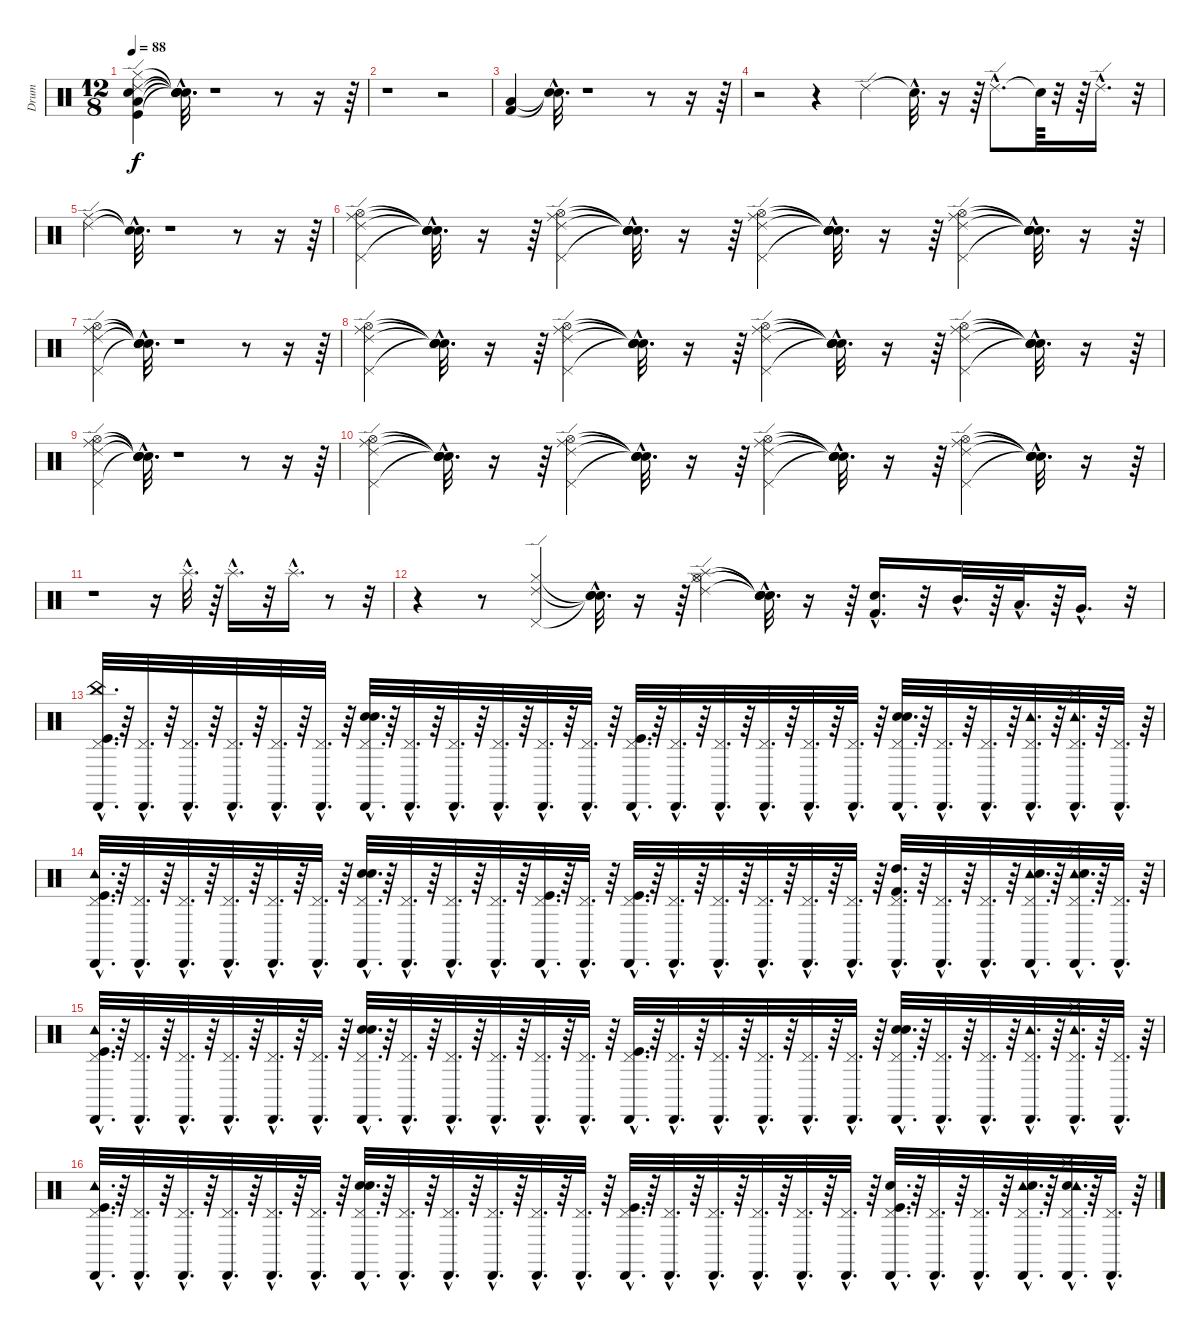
\track ("Drum" "Drum") {instrument percussion}
\staff {score}
\articulation defaults
\ts (12 8)
\tempo 88
\clef neutral
\ks c
("Ride (edge) 2" "Hi-Hat (closed)" "Low Tom (hit)" "Kick (hit)" "Snare (hit) 2").4{dy f} ("Snare (hit)"{hac t} "Snare (hit)"{hac t} "Snare (hit)"{hac t} "Snare (hit)"{hac t} "Snare (hit)"{hac t}).32{d} r.1 r.8 r.16 r.64 |
r.1 r.2 |
("Kick (hit) 2" "Low Tom (hit)").4 ("Snare (hit)"{hac t} "Snare (hit)"{hac t}).32{d} r.1 r.8 r.16 r.64 |
r.2 r.4 "Ride (edge) 2".4 "Snare (hit)"{hac t}.32{d} r.16 r.64 "Ride (edge) 2"{hac}.8{d} "Snare (hit)"{t}.64 r.32 r.64 "Ride (edge) 2"{hac}.16{d} r.32 |
("Ride (middle)" "Ride (edge) 2").4 ("Snare (hit)"{hac t} "Snare (hit)"{hac t}).32{d} r.1 r.8 r.16 r.64 |
("Pedal Hi-Hat (hit)" "Ride (edge) 2" "Ride (middle)" "Hi-Hat (open)").4 ("Snare (hit)"{hac t} "Snare (hit)"{hac t} "Snare (hit)"{hac t} "Snare (hit)"{hac t}).32{d} r.16 r.64 ("Pedal Hi-Hat (hit)" "Ride (edge) 2" "Ride (middle)" "Hi-Hat (open)").4 ("Snare (hit)"{hac t} "Snare (hit)"{hac t} "Snare (hit)"{hac t} "Snare (hit)"{hac t}).32{d} r.16 r.64 ("Pedal Hi-Hat (hit)" "Ride (edge) 2" "Ride (middle)" "Hi-Hat (open)").4 ("Snare (hit)"{hac t} "Snare (hit)"{hac t} "Snare (hit)"{hac t} "Snare (hit)"{hac t}).32{d} r.16 r.64 ("Pedal Hi-Hat (hit)" "Ride (edge) 2" "Ride (middle)" "Hi-Hat (open)").4 ("Snare (hit)"{hac t} "Snare (hit)"{hac t} "Snare (hit)"{hac t} "Snare (hit)"{hac t}).32{d} r.16 r.64 |
("Pedal Hi-Hat (hit)" "Ride (middle)" "Ride (edge) 2" "Hi-Hat (open)").4 ("Snare (hit)"{hac t} "Snare (hit)"{hac t} "Snare (hit)"{hac t} "Snare (hit)"{hac t}).32{d} r.1 r.8 r.16 r.64 |
("Hi-Hat (open)" "Ride (middle)" "Ride (edge) 2" "Pedal Hi-Hat (hit)").4 ("Snare (hit)"{hac t} "Snare (hit)"{hac t} "Snare (hit)"{hac t} "Snare (hit)"{hac t}).32{d} r.16 r.64 ("Hi-Hat (open)" "Ride (middle)" "Ride (edge) 2" "Pedal Hi-Hat (hit)").4 ("Snare (hit)"{hac t} "Snare (hit)"{hac t} "Snare (hit)"{hac t} "Snare (hit)"{hac t}).32{d} r.16 r.64 ("Hi-Hat (open)" "Ride (middle)" "Ride (edge) 2" "Pedal Hi-Hat (hit)").4 ("Snare (hit)"{hac t} "Snare (hit)"{hac t} "Snare (hit)"{hac t} "Snare (hit)"{hac t}).32{d} r.16 r.64 ("Hi-Hat (open)" "Ride (middle)" "Ride (edge) 2" "Pedal Hi-Hat (hit)").4 ("Snare (hit)"{hac t} "Snare (hit)"{hac t} "Snare (hit)"{hac t} "Snare (hit)"{hac t}).32{d} r.16 r.64 |
("Hi-Hat (open)" "Ride (edge) 2" "Ride (middle)" "Pedal Hi-Hat (hit)").4 ("Snare (hit)"{hac t} "Snare (hit)"{hac t} "Snare (hit)"{hac t} "Snare (hit)"{hac t}).32{d} r.1 r.8 r.16 r.64 |
("Pedal Hi-Hat (hit)" "Ride (edge) 2" "Ride (middle)" "Hi-Hat (open)").4 ("Snare (hit)"{hac t} "Snare (hit)"{hac t} "Snare (hit)"{hac t} "Snare (hit)"{hac t}).32{d} r.16 r.64 ("Pedal Hi-Hat (hit)" "Ride (edge) 2" "Ride (middle)" "Hi-Hat (open)").4 ("Snare (hit)"{hac t} "Snare (hit)"{hac t} "Snare (hit)"{hac t} "Snare (hit)"{hac t}).32{d} r.16 r.64 ("Pedal Hi-Hat (hit)" "Ride (edge) 2" "Ride (middle)" "Hi-Hat (open)").4 ("Snare (hit)"{hac t} "Snare (hit)"{hac t} "Snare (hit)"{hac t} "Snare (hit)"{hac t}).32{d} r.16 r.64 ("Pedal Hi-Hat (hit)" "Ride (edge) 2" "Ride (middle)" "Hi-Hat (open)").4 ("Snare (hit)"{hac t} "Snare (hit)"{hac t} "Snare (hit)"{hac t} "Snare (hit)"{hac t}).32{d} r.16 r.64 |
r.1 r.16 "Splash (hit)"{hac}.32{d} r.64 "Splash (hit)"{hac}.16{d} r.32 "Splash (hit)"{hac}.16{d} r.8 r.32 |
r.4 r.8 ("Ride (edge) 2" "Hi-Hat (closed)" "Pedal Hi-Hat (hit)").4 ("Snare (hit)"{hac t} "Snare (hit)"{hac t} "Snare (hit)"{hac t}).32{d} r.16 r.64 ("Ride (edge) 2" "Hi-Hat (open)" "Splash (hit)" "Hi-Hat (closed)").4 ("Snare (hit)"{hac t} "Snare (hit)"{hac t} "Snare (hit)"{hac t} "Snare (hit)"{hac t}).32{d} r.16 r.64 ("Kick (hit) 2"{hac} "Snare (hit) 2"{hac}).16{d} r.32 "Mid Tom (hit)"{hac}.32{d} r.64 "Low Tom (hit)"{hac}.32{d} r.64 "Very Low Tom (hit)"{hac}.16{d} r.32 |
("Pedal Hi-Hat (hit)"{hac} "Kick (hit)"{hac} "Cabasa (hit)"{hac} "China (hit)"{hac}).32{d} r.64 ("Cabasa (hit)"{hac} "Pedal Hi-Hat (hit)"{hac}).32{d} r.64 ("Cabasa (hit)"{hac} "Pedal Hi-Hat (hit)"{hac}).32{d} r.64 ("Cabasa (hit)"{hac} "Pedal Hi-Hat (hit)"{hac}).32{d} r.64 ("Cabasa (hit)"{hac} "Pedal Hi-Hat (hit)"{hac}).32{d} r.64 ("Pedal Hi-Hat (hit)"{hac} "Cabasa (hit)"{hac}).32{d} r.64 ("Electric Snare (hit)"{hac} "Snare (hit) 2"{hac} "Cabasa (hit)"{hac} "Pedal Hi-Hat (hit)"{hac}).32{d} r.64 ("Cabasa (hit)"{hac} "Pedal Hi-Hat (hit)"{hac}).32{d} r.64 ("Cabasa (hit)"{hac} "Pedal Hi-Hat (hit)"{hac}).32{d} r.64 ("Pedal Hi-Hat (hit)"{hac} "Cabasa (hit)"{hac}).32{d} r.64 ("Pedal Hi-Hat (hit)"{hac} "Cabasa (hit)"{hac}).32{d} r.64 ("Cabasa (hit)"{hac} "Pedal Hi-Hat (hit)"{hac}).32{d} r.64 ("Cabasa (hit)"{hac} "Kick (hit)"{hac} "Pedal Hi-Hat (hit)"{hac}).32{d} r.64 ("Cabasa (hit)"{hac} "Pedal Hi-Hat (hit)"{hac}).32{d} r.64 ("Cabasa (hit)"{hac} "Pedal Hi-Hat (hit)"{hac}).32{d} r.64 ("Pedal Hi-Hat (hit)"{hac} "Cabasa (hit)"{hac}).32{d} r.64 ("Pedal Hi-Hat (hit)"{hac} "Cabasa (hit)"{hac}).32{d} r.64 ("Pedal Hi-Hat (hit)"{hac} "Cabasa (hit)"{hac}).32{d} r.64 ("Snare (hit) 2"{hac} "Pedal Hi-Hat (hit)"{hac} "Electric Snare (hit)"{hac} "Cabasa (hit)"{hac}).32{d} r.64 ("Pedal Hi-Hat (hit)"{hac} "Cabasa (hit)"{hac}).32{d} r.64 ("Pedal Hi-Hat (hit)"{hac} "Cabasa (hit)"{hac}).32{d} r.64 ("Tambourine (hit)"{hac} "Pedal Hi-Hat (hit)"{hac} "Cabasa (hit)"{hac}).32{d} r.64 ("Pedal Hi-Hat (hit)"{hac} "Cabasa (hit)"{hac} "Splash (hit)"{hac} "Tambourine (hit)"{hac}).32{d} r.64 ("Pedal Hi-Hat (hit)"{hac} "Cabasa (hit)"{hac}).32{d} r.64 |
("Cabasa (hit)"{hac} "Kick (hit)"{hac} "Pedal Hi-Hat (hit)"{hac} "Tambourine (hit)"{hac}).32{d} r.64 ("Cabasa (hit)"{hac} "Pedal Hi-Hat (hit)"{hac}).32{d} r.64 ("Pedal Hi-Hat (hit)"{hac} "Cabasa (hit)"{hac}).32{d} r.64 ("Pedal Hi-Hat (hit)"{hac} "Cabasa (hit)"{hac}).32{d} r.64 ("Cabasa (hit)"{hac} "Pedal Hi-Hat (hit)"{hac}).32{d} r.64 ("Pedal Hi-Hat (hit)"{hac} "Cabasa (hit)"{hac}).32{d} r.64 ("Pedal Hi-Hat (hit)"{hac} "Snare (hit) 2"{hac} "Cabasa (hit)"{hac} "Electric Snare (hit)"{hac}).32{d} r.64 ("Cabasa (hit)"{hac} "Pedal Hi-Hat (hit)"{hac}).32{d} r.64 ("Cabasa (hit)"{hac} "Pedal Hi-Hat (hit)"{hac}).32{d} r.64 ("Pedal Hi-Hat (hit)"{hac} "Cabasa (hit)"{hac}).32{d} r.64 ("Cabasa (hit)"{hac} "Pedal Hi-Hat (hit)"{hac} "Kick (hit)"{hac}).32{d} r.64 ("Cabasa (hit)"{hac} "Pedal Hi-Hat (hit)"{hac}).32{d} r.64 ("Cabasa (hit)"{hac} "Kick (hit)"{hac} "Pedal Hi-Hat (hit)"{hac}).32{d} r.64 ("Cabasa (hit)"{hac} "Pedal Hi-Hat (hit)"{hac}).32{d} r.64 ("Pedal Hi-Hat (hit)"{hac} "Cabasa (hit)"{hac}).32{d} r.64 ("Pedal Hi-Hat (hit)"{hac} "Cabasa (hit)"{hac}).32{d} r.64 ("Cabasa (hit)"{hac} "Pedal Hi-Hat (hit)"{hac}).32{d} r.64 ("Pedal Hi-Hat (hit)"{hac} "Cabasa (hit)"{hac}).32{d} r.64 ("High Tom (hit)"{hac} "Pedal Hi-Hat (hit)"{hac} "Kick (hit) 2"{hac} "Cabasa (hit)"{hac}).32{d} r.64 ("Pedal Hi-Hat (hit)"{hac} "Cabasa (hit)"{hac}).32{d} r.64 ("Pedal Hi-Hat (hit)"{hac} "Cabasa (hit)"{hac}).32{d} r.64 ("Tambourine (hit)"{hac} "Snare (hit) 2"{hac} "Pedal Hi-Hat (hit)"{hac} "Cabasa (hit)"{hac}).32{d} r.64 ("Splash (hit)"{hac} "Tambourine (hit)"{hac} "Pedal Hi-Hat (hit)"{hac} "Snare (hit) 2"{hac} "Cabasa (hit)"{hac}).32{d} r.64 ("Pedal Hi-Hat (hit)"{hac} "Cabasa (hit)"{hac}).32{d} r.64 |
("Kick (hit)"{hac} "Pedal Hi-Hat (hit)"{hac} "Cabasa (hit)"{hac} "Tambourine (hit)"{hac}).32{d} r.64 ("Pedal Hi-Hat (hit)"{hac} "Cabasa (hit)"{hac}).32{d} r.64 ("Pedal Hi-Hat (hit)"{hac} "Cabasa (hit)"{hac}).32{d} r.64 ("Pedal Hi-Hat (hit)"{hac} "Cabasa (hit)"{hac}).32{d} r.64 ("Pedal Hi-Hat (hit)"{hac} "Cabasa (hit)"{hac}).32{d} r.64 ("Cabasa (hit)"{hac} "Pedal Hi-Hat (hit)"{hac}).32{d} r.64 ("Cabasa (hit)"{hac} "Electric Snare (hit)"{hac} "Pedal Hi-Hat (hit)"{hac} "Snare (hit) 2"{hac}).32{d} r.64 ("Pedal Hi-Hat (hit)"{hac} "Cabasa (hit)"{hac}).32{d} r.64 ("Pedal Hi-Hat (hit)"{hac} "Cabasa (hit)"{hac}).32{d} r.64 ("Cabasa (hit)"{hac} "Pedal Hi-Hat (hit)"{hac}).32{d} r.64 ("Cabasa (hit)"{hac} "Pedal Hi-Hat (hit)"{hac}).32{d} r.64 ("Pedal Hi-Hat (hit)"{hac} "Cabasa (hit)"{hac}).32{d} r.64 ("Kick (hit)"{hac} "Pedal Hi-Hat (hit)"{hac} "Cabasa (hit)"{hac}).32{d} r.64 ("Pedal Hi-Hat (hit)"{hac} "Cabasa (hit)"{hac}).32{d} r.64 ("Pedal Hi-Hat (hit)"{hac} "Cabasa (hit)"{hac}).32{d} r.64 ("Pedal Hi-Hat (hit)"{hac} "Cabasa (hit)"{hac}).32{d} r.64 ("Cabasa (hit)"{hac} "Pedal Hi-Hat (hit)"{hac}).32{d} r.64 ("Pedal Hi-Hat (hit)"{hac} "Cabasa (hit)"{hac}).32{d} r.64 ("Cabasa (hit)"{hac} "Electric Snare (hit)"{hac} "Snare (hit) 2"{hac} "Pedal Hi-Hat (hit)"{hac}).32{d} r.64 ("Cabasa (hit)"{hac} "Pedal Hi-Hat (hit)"{hac}).32{d} r.64 ("Pedal Hi-Hat (hit)"{hac} "Cabasa (hit)"{hac}).32{d} r.64 ("Tambourine (hit)"{hac} "Pedal Hi-Hat (hit)"{hac} "Cabasa (hit)"{hac}).32{d} r.64 ("Splash (hit)"{hac} "Cabasa (hit)"{hac} "Pedal Hi-Hat (hit)"{hac} "Tambourine (hit)"{hac}).32{d} r.64 ("Pedal Hi-Hat (hit)"{hac} "Cabasa (hit)"{hac}).32{d} r.64 |
("Tambourine (hit)"{hac} "Kick (hit)"{hac} "Pedal Hi-Hat (hit)"{hac} "Cabasa (hit)"{hac}).32{d} r.64 ("Cabasa (hit)"{hac} "Pedal Hi-Hat (hit)"{hac}).32{d} r.64 ("Pedal Hi-Hat (hit)"{hac} "Cabasa (hit)"{hac}).32{d} r.64 ("Pedal Hi-Hat (hit)"{hac} "Cabasa (hit)"{hac}).32{d} r.64 ("Cabasa (hit)"{hac} "Pedal Hi-Hat (hit)"{hac}).32{d} r.64 ("Pedal Hi-Hat (hit)"{hac} "Cabasa (hit)"{hac}).32{d} r.64 ("Pedal Hi-Hat (hit)"{hac} "Snare (hit) 2"{hac} "Electric Snare (hit)"{hac} "Cabasa (hit)"{hac}).32{d} r.64 ("Pedal Hi-Hat (hit)"{hac} "Cabasa (hit)"{hac}).32{d} r.64 ("Pedal Hi-Hat (hit)"{hac} "Cabasa (hit)"{hac}).32{d} r.64 ("Pedal Hi-Hat (hit)"{hac} "Cabasa (hit)"{hac}).32{d} r.64 ("Pedal Hi-Hat (hit)"{hac} "Cabasa (hit)"{hac}).32{d} r.64 ("Cabasa (hit)"{hac} "Pedal Hi-Hat (hit)"{hac}).32{d} r.64 ("Cabasa (hit)"{hac} "Pedal Hi-Hat (hit)"{hac} "Kick (hit)"{hac}).32{d} r.64 ("Pedal Hi-Hat (hit)"{hac} "Cabasa (hit)"{hac}).32{d} r.64 ("Cabasa (hit)"{hac} "Pedal Hi-Hat (hit)"{hac}).32{d} r.64 ("Pedal Hi-Hat (hit)"{hac} "Cabasa (hit)"{hac}).32{d} r.64 ("Pedal Hi-Hat (hit)"{hac} "Cabasa (hit)"{hac}).32{d} r.64 ("Cabasa (hit)"{hac} "Pedal Hi-Hat (hit)"{hac}).32{d} r.64 ("Cabasa (hit)"{hac} "Kick (hit)"{hac} "Electric Snare (hit)"{hac} "Pedal Hi-Hat (hit)"{hac}).32{d} r.64 ("Pedal Hi-Hat (hit)"{hac} "Cabasa (hit)"{hac}).32{d} r.64 ("Cabasa (hit)"{hac} "Pedal Hi-Hat (hit)"{hac}).32{d} r.64 ("Cabasa (hit)"{hac} "Tambourine (hit)"{hac} "Pedal Hi-Hat (hit)"{hac} "Snare (hit) 2"{hac}).32{d} r.64 ("Snare (hit) 2"{hac} "Pedal Hi-Hat (hit)"{hac} "Cabasa (hit)"{hac} "Splash (hit)"{hac} "Tambourine (hit)"{hac}).32{d} r.64 ("Cabasa (hit)"{hac} "Pedal Hi-Hat (hit)"{hac}).32{d} r.64
